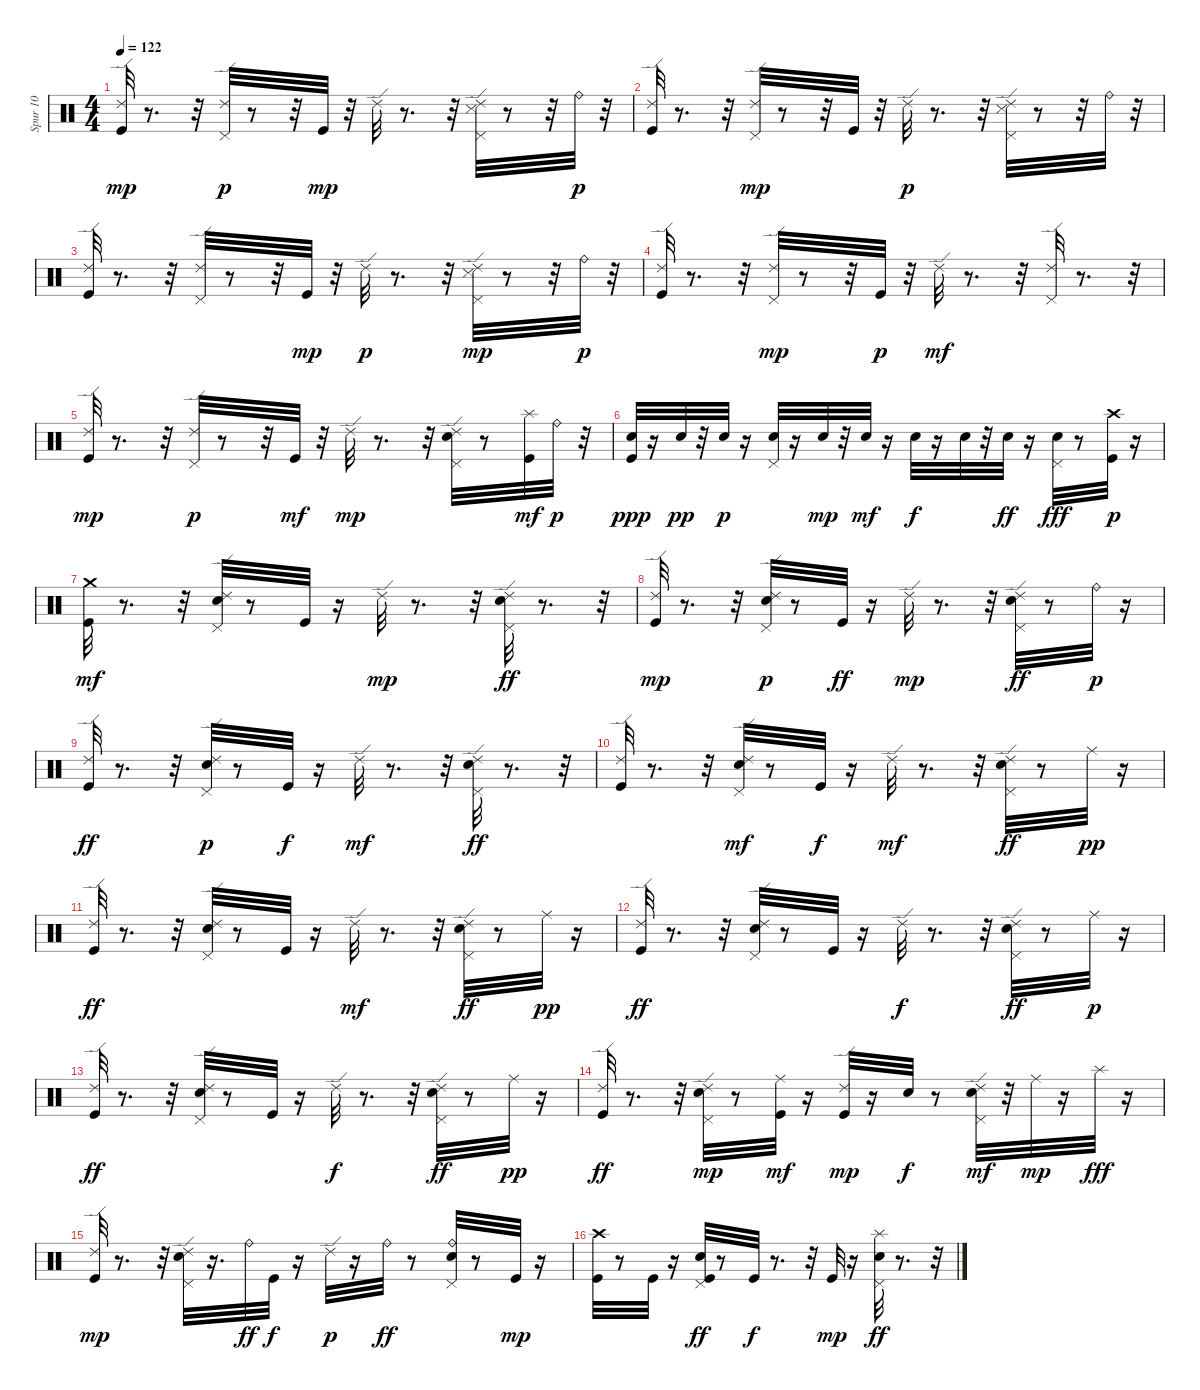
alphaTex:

\track ("Spur 10" "Spur 10") {instrument percussion}
\staff {score}
\articulation defaults
\ts (4 4)
\tempo 122
\clef neutral
\ks c
("Kick (hit)" "Ride (edge) 2").32{dy mp} r.8{d} r.32 ("Ride (edge) 2" "Pedal Hi-Hat (hit)").32{dy p} r.8 r.32 "Kick (hit)".32{dy mp} r.32 "Ride (edge) 2".32 r.8{d} r.32 ("Snare (side stick) 3" "Pedal Hi-Hat (hit)" "Ride (edge) 2").32 r.8 r.32 "Ride (bell)".32{dy p} r.32 |
("Kick (hit)" "Ride (edge) 2").32 r.8{d} r.32 ("Pedal Hi-Hat (hit)" "Ride (edge) 2").32{dy mp} r.8 r.32 "Kick (hit)".32 r.32 "Ride (edge) 2".32{dy p} r.8{d} r.32 ("Snare (side stick) 3" "Pedal Hi-Hat (hit)" "Ride (edge) 2").32 r.8 r.32 "Ride (bell)".32 r.32 |
("Kick (hit)" "Ride (edge) 2").32 r.8{d} r.32 ("Pedal Hi-Hat (hit)" "Ride (edge) 2").32 r.8 r.32 "Kick (hit)".32{dy mp} r.32 "Ride (edge) 2".32{dy p} r.8{d} r.32 ("Snare (side stick) 3" "Pedal Hi-Hat (hit)" "Ride (edge) 2").32{dy mp} r.8 r.32 "Ride (bell)".32{dy p} r.32 |
("Kick (hit)" "Ride (edge) 2").32 r.8{d} r.32 ("Ride (edge) 2" "Pedal Hi-Hat (hit)").32{dy mp} r.8 r.32 "Kick (hit)".32{dy p} r.32 "Ride (edge) 2".32{dy mf} r.8{d} r.32 ("Pedal Hi-Hat (hit)" "Ride (edge) 2").32 r.8{d} r.32 |
("Kick (hit)" "Ride (edge) 2").32{dy mp} r.8{d} r.32 ("Ride (edge) 2" "Pedal Hi-Hat (hit)").32{dy p} r.8 r.32 "Kick (hit)".32{dy mf} r.32 "Ride (edge) 2".32{dy mp} r.8{d} r.32 ("Pedal Hi-Hat (hit)" "Electric Snare (hit)" "Ride (edge) 2").32 r.8 ("Kick (hit)" "Splash (hit)").32{dy mf} "Ride (bell)".32{dy p} r.32 |
("Kick (hit)" "Electric Snare (hit)").32{dy ppp} r.16 "Electric Snare (hit)".32{dy pp} r.32 "Electric Snare (hit)".32{dy p} r.16 ("Pedal Hi-Hat (hit)" "Electric Snare (hit)").32 r.16 "Electric Snare (hit)".32{dy mp} r.32 "Electric Snare (hit)".32{dy mf} r.16 "Electric Snare (hit)".32{dy f} r.16 "Electric Snare (hit)".32 r.32 "Electric Snare (hit)".32{dy ff} r.16 ("Pedal Hi-Hat (hit)" "Electric Snare (hit)").32{dy fff} r.8 ("Kick (hit)" "Crash high (hit)").32{dy p} r.16 |
("Kick (hit)" "Crash medium (hit)").32{dy mf} r.8{d} r.32 ("Pedal Hi-Hat (hit)" "Ride (edge) 2" "Electric Snare (hit)").32 r.8 "Kick (hit)".32 r.16 "Ride (edge) 2".32{dy mp} r.8{d} r.32 ("Pedal Hi-Hat (hit)" "Ride (edge) 2" "Electric Snare (hit)").32{dy ff} r.8{d} r.32 |
("Kick (hit)" "Ride (edge) 2").32{dy mp} r.8{d} r.32 ("Pedal Hi-Hat (hit)" "Ride (edge) 2" "Electric Snare (hit)").32{dy p} r.8 "Kick (hit)".32{dy ff} r.16 "Ride (edge) 2".32{dy mp} r.8{d} r.32 ("Ride (edge) 2" "Pedal Hi-Hat (hit)" "Electric Snare (hit)").32{dy ff} r.8 "Ride (bell)".32{dy p} r.16 |
("Ride (edge) 2" "Kick (hit)").32{dy ff} r.8{d} r.32 ("Ride (edge) 2" "Pedal Hi-Hat (hit)" "Electric Snare (hit)").32{dy p} r.8 "Kick (hit)".32{dy f} r.16 "Ride (edge) 2".32{dy mf} r.8{d} r.32 ("Ride (edge) 2" "Pedal Hi-Hat (hit)" "Electric Snare (hit)").32{dy ff} r.8{d} r.32 |
("Ride (edge) 2" "Kick (hit)").32 r.8{d} r.32 ("Pedal Hi-Hat (hit)" "Electric Snare (hit)" "Ride (edge) 2").32{dy mf} r.8 "Kick (hit)".32{dy f} r.16 "Ride (edge) 2".32{dy mf} r.8{d} r.32 ("Pedal Hi-Hat (hit)" "Ride (edge) 2" "Electric Snare (hit)").32{dy ff} r.8 "Ride (middle)".32{dy pp} r.16 |
("Ride (edge) 2" "Kick (hit)").32{dy ff} r.8{d} r.32 ("Ride (edge) 2" "Pedal Hi-Hat (hit)" "Electric Snare (hit)").32 r.8 "Kick (hit)".32 r.16 "Ride (edge) 2".32{dy mf} r.8{d} r.32 ("Pedal Hi-Hat (hit)" "Ride (edge) 2" "Electric Snare (hit)").32{dy ff} r.8 "Ride (middle)".32{dy pp} r.16 |
("Ride (edge) 2" "Kick (hit)").32{dy ff} r.8{d} r.32 ("Pedal Hi-Hat (hit)" "Electric Snare (hit)" "Ride (edge) 2").32 r.8 "Kick (hit)".32 r.16 "Ride (edge) 2".32{dy f} r.8{d} r.32 ("Pedal Hi-Hat (hit)" "Electric Snare (hit)" "Ride (edge) 2").32{dy ff} r.8 "Ride (middle)".32{dy p} r.16 |
("Ride (edge) 2" "Kick (hit)").32{dy ff} r.8{d} r.32 ("Ride (edge) 2" "Pedal Hi-Hat (hit)" "Electric Snare (hit)").32 r.8 "Kick (hit)".32 r.16 "Ride (edge) 2".32{dy f} r.8{d} r.32 ("Pedal Hi-Hat (hit)" "Electric Snare (hit)" "Ride (edge) 2").32{dy ff} r.8 "Ride (middle)".32{dy pp} r.16 |
("Kick (hit)" "Ride (edge) 2").32{dy ff} r.8{d} r.32 ("Pedal Hi-Hat (hit)" "Electric Snare (hit)" "Ride (edge) 2").32{dy mp} r.8 ("Ride (middle)" "Kick (hit)").32{dy mf} r.16 ("Kick (hit)" "Ride (edge) 2").32{dy mp} r.16 "Electric Snare (hit)".32{dy f} r.8 ("Pedal Hi-Hat (hit)" "Electric Snare (hit)" "Ride (edge) 2").32{dy mf} r.32 "Ride (middle)".32{dy mp} r.16 "Splash (hit)".32{dy fff} r.16 |
("Kick (hit)" "Ride (edge) 2").32{dy mp} r.8{d} r.32 ("Pedal Hi-Hat (hit)" "Electric Snare (hit)" "Ride (edge) 2").32 r.16{d} "Ride (bell)".32{dy ff} "Kick (hit)".32{dy f} r.16 "Ride (edge) 2".32{dy p} r.16 "Ride (bell)".32{dy ff} r.8 ("Pedal Hi-Hat (hit)" "Electric Snare (hit)" "Ride (bell)").32 r.8 "Kick (hit)".32{dy mp} r.16 |
("Kick (hit)" "Crash high (hit)").32 r.8 "Kick (hit)".32 r.16 ("Pedal Hi-Hat (hit)" "Kick (hit)" "Electric Snare (hit)").32{dy ff} r.8 "Kick (hit)".32{dy f} r.8{d} r.32 "Kick (hit)".32{dy mp} r.16 ("Splash (hit)" "Pedal Hi-Hat (hit)" "Electric Snare (hit)").32{dy ff} r.8{d} r.32
